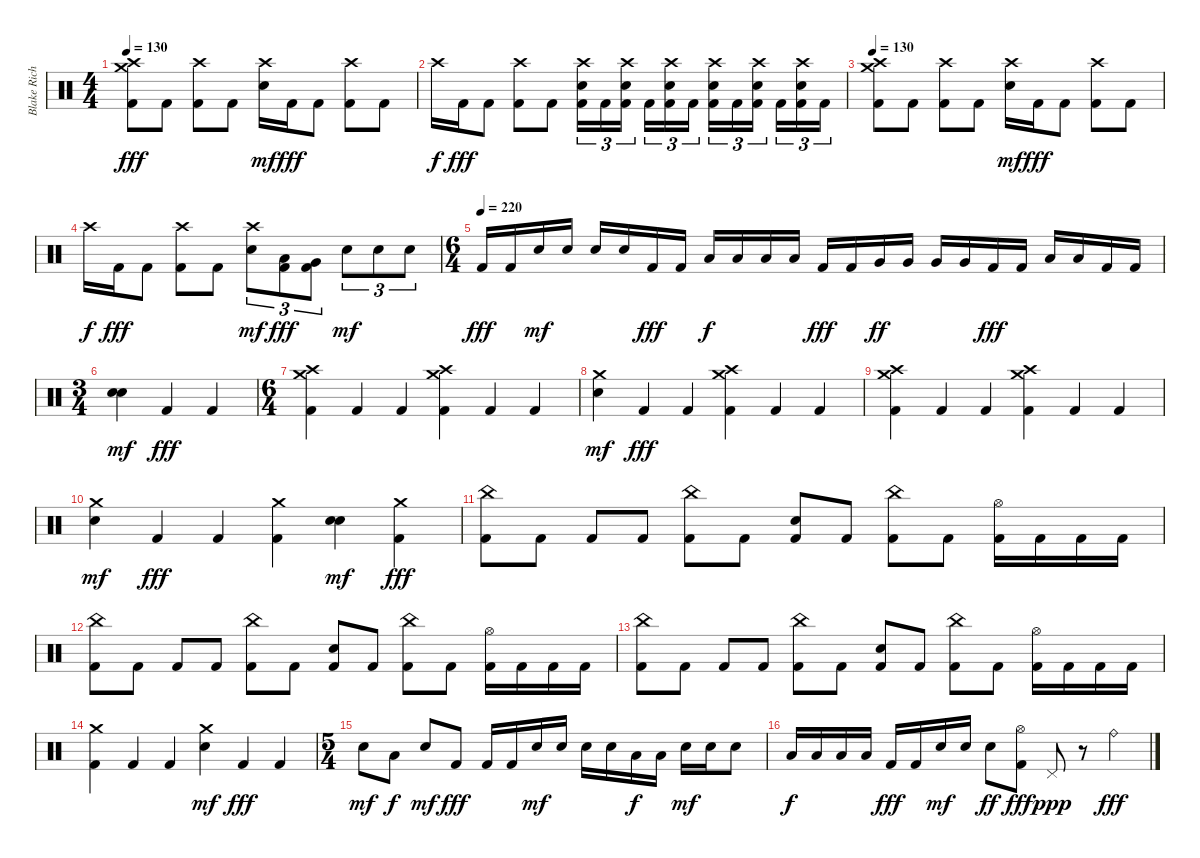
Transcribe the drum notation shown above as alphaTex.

\track ("Blake Richardson" "Blake Rich") {instrument percussion}
\staff {score}
\articulation defaults
\ts (4 4)
\tempo 130
\clef neutral
\ks c
("Crash high (hit)" "Crash medium (hit)" "Kick (hit) 2").8{dy fff} "Kick (hit) 2".8 ("Crash high (hit)" "Kick (hit) 2").8 "Kick (hit) 2".8 ("Crash high (hit)" "Electric Snare (hit)").16{dy mf} "Kick (hit) 2".16{dy fff} "Kick (hit) 2".8 ("Crash high (hit)" "Kick (hit) 2").8 "Kick (hit) 2".8 |
"Crash high (hit)".16{dy f} "Kick (hit) 2".16{dy fff} "Kick (hit) 2".8 ("Crash high (hit)" "Kick (hit) 2").8 "Kick (hit) 2".8 ("Crash high (hit)" "Electric Snare (hit)" "Kick (hit) 2").16{tu (3 2)} "Kick (hit) 2".16{tu (3 2)} ("Crash high (hit)" "Electric Snare (hit)" "Kick (hit) 2").16{tu (3 2)} "Kick (hit) 2".16{tu (3 2)} ("Crash high (hit)" "Electric Snare (hit)" "Kick (hit) 2").16{tu (3 2)} "Kick (hit) 2".16{tu (3 2)} ("Crash high (hit)" "Electric Snare (hit)" "Kick (hit) 2").16{tu (3 2)} "Kick (hit) 2".16{tu (3 2)} ("Crash high (hit)" "Electric Snare (hit)" "Kick (hit) 2").16{tu (3 2)} "Kick (hit) 2".16{tu (3 2)} ("Crash high (hit)" "Electric Snare (hit)" "Kick (hit) 2").16{tu (3 2)} "Kick (hit) 2".16{tu (3 2)} |
\tempo 130
("Crash high (hit)" "Crash medium (hit)" "Kick (hit) 2").8 "Kick (hit) 2".8 ("Crash high (hit)" "Kick (hit) 2").8 "Kick (hit) 2".8 ("Crash high (hit)" "Electric Snare (hit)").16{dy mf} "Kick (hit) 2".16{dy fff} "Kick (hit) 2".8 ("Crash high (hit)" "Kick (hit) 2").8 "Kick (hit) 2".8 |
"Crash high (hit)".16{dy f} "Kick (hit) 2".16{dy fff} "Kick (hit) 2".8 ("Crash high (hit)" "Kick (hit) 2").8 "Kick (hit) 2".8 ("Crash high (hit)" "Electric Snare (hit)").8{tu (3 2) dy mf} ("Low Tom (hit)" "Kick (hit) 2").8{tu (3 2) dy fff} ("Very Low Tom (hit)" "Kick (hit) 2").8{tu (3 2)} "Electric Snare (hit)".8{tu (3 2) dy mf} "Electric Snare (hit)".8{tu (3 2)} "Electric Snare (hit)".8{tu (3 2)} |
\ts (6 4)
\tempo (220)
"Kick (hit) 2".16{dy fff} "Kick (hit) 2".16 "Electric Snare (hit)".16{dy mf} "Electric Snare (hit)".16 "Electric Snare (hit)".16 "Electric Snare (hit)".16 "Kick (hit) 2".16{dy fff} "Kick (hit) 2".16 "Low Tom (hit)".16{dy f} "Low Tom (hit)".16 "Low Tom (hit)".16 "Low Tom (hit)".16 "Kick (hit) 2".16{dy fff} "Kick (hit) 2".16 "Very Low Tom (hit)".16{dy ff} "Very Low Tom (hit)".16 "Very Low Tom (hit)".16 "Very Low Tom (hit)".16 "Kick (hit) 2".16{dy fff} "Kick (hit) 2".16 "Low Floor Tom (hit)".16 "Low Floor Tom (hit)".16 "Kick (hit) 2".16 "Kick (hit) 2".16 |
\ts (3 4)
("Electric Snare (hit)" "Electric Snare (hit)").4{bu 480 dy mf} "Kick (hit) 2".4{dy fff} "Kick (hit) 2".4 |
\ts (6 4)
("Crash medium (hit)" "Crash high (hit)" "Kick (hit) 2").4 "Kick (hit) 2".4 "Kick (hit) 2".4 ("Crash medium (hit)" "Crash high (hit)" "Kick (hit) 2").4 "Kick (hit) 2".4 "Kick (hit) 2".4 |
("Crash medium (hit)" "Electric Snare (hit)").4{dy mf} "Kick (hit) 2".4{dy fff} "Kick (hit) 2".4 ("Crash medium (hit)" "Crash high (hit)" "Kick (hit) 2").4 "Kick (hit) 2".4 "Kick (hit) 2".4 |
("Crash medium (hit)" "Crash high (hit)" "Kick (hit) 2").4 "Kick (hit) 2".4 "Kick (hit) 2".4 ("Crash medium (hit)" "Crash high (hit)" "Kick (hit) 2").4 "Kick (hit) 2".4 "Kick (hit) 2".4 |
("Crash medium (hit)" "Electric Snare (hit)").4{dy mf} "Kick (hit) 2".4{dy fff} "Kick (hit) 2".4 ("Crash medium (hit)" "Kick (hit) 2").4 ("Electric Snare (hit)" "Electric Snare (hit)").4{bu 480 dy mf} ("Crash medium (hit)" "Kick (hit) 2").4{dy fff} |
("China (hit)" "Kick (hit) 2").8 "Kick (hit) 2".8 "Kick (hit) 2".8 "Kick (hit) 2".8 ("China (hit)" "Kick (hit) 2").8 "Kick (hit) 2".8 ("Electric Snare (hit)" "Kick (hit) 2").8 "Kick (hit) 2".8 ("China (hit)" "Kick (hit) 2").8 "Kick (hit) 2".8 ("Hi-Hat (open)" "Kick (hit) 2").16 "Kick (hit) 2".16 "Kick (hit) 2".16 "Kick (hit) 2".16 |
("China (hit)" "Kick (hit) 2").8 "Kick (hit) 2".8 "Kick (hit) 2".8 "Kick (hit) 2".8 ("China (hit)" "Kick (hit) 2").8 "Kick (hit) 2".8 ("Electric Snare (hit)" "Kick (hit) 2").8 "Kick (hit) 2".8 ("China (hit)" "Kick (hit) 2").8 "Kick (hit) 2".8 ("Hi-Hat (open)" "Kick (hit) 2").16 "Kick (hit) 2".16 "Kick (hit) 2".16 "Kick (hit) 2".16 |
("China (hit)" "Kick (hit) 2").8 "Kick (hit) 2".8 "Kick (hit) 2".8 "Kick (hit) 2".8 ("China (hit)" "Kick (hit) 2").8 "Kick (hit) 2".8 ("Electric Snare (hit)" "Kick (hit) 2").8 "Kick (hit) 2".8 ("China (hit)" "Kick (hit) 2").8 "Kick (hit) 2".8 ("Hi-Hat (open)" "Kick (hit) 2").16 "Kick (hit) 2".16 "Kick (hit) 2".16 "Kick (hit) 2".16 |
("Crash medium (hit)" "Kick (hit) 2").4 "Kick (hit) 2".4 "Kick (hit) 2".4 ("Crash medium (hit)" "Electric Snare (hit)").4{dy mf} "Kick (hit) 2".4{dy fff} "Kick (hit) 2".4 |
\ts (5 4)
"Electric Snare (hit)".8{dy mf} "Low Tom (hit)".8{dy f} "Electric Snare (hit)".8{dy mf} "Kick (hit) 2".8{dy fff} "Kick (hit) 2".16 "Kick (hit) 2".16 "Electric Snare (hit)".16{dy mf} "Electric Snare (hit)".16 "Electric Snare (hit)".16 "Electric Snare (hit)".16 "Low Tom (hit)".16{dy f} "Low Tom (hit)".16 "Electric Snare (hit)".16{dy mf} "Electric Snare (hit)".16 "Electric Snare (hit)".8 |
"Low Tom (hit)".16{dy f} "Low Tom (hit)".16 "Low Tom (hit)".16 "Low Tom (hit)".16 "Kick (hit) 2".16{dy fff} "Kick (hit) 2".16 "Electric Snare (hit)".16{dy mf} "Electric Snare (hit)".16 "Electric Snare (hit)".8{dy ff} ("Hi-Hat (open)" "Kick (hit) 2").8{dy fff} "Pedal Hi-Hat (hit)".8{dy ppp} r.8 "Ride (bell)".4{dy fff}
